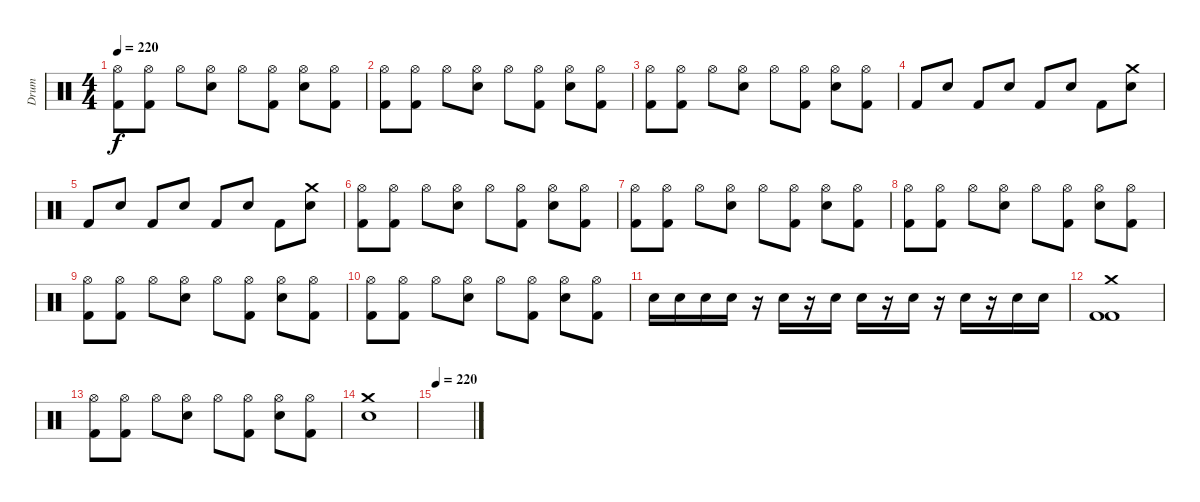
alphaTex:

\track ("Drum" "Drum") {instrument percussion}
\staff {score}
\articulation defaults
\ts (4 4)
\tempo 220
\clef neutral
\ks c
("Hi-Hat (open)" "Kick (hit) 2").8{dy f} ("Hi-Hat (open)" "Kick (hit) 2").8 "Hi-Hat (open)".8 ("Hi-Hat (open)" "Snare (hit) 2").8 "Hi-Hat (open)".8 ("Hi-Hat (open)" "Kick (hit) 2").8 ("Hi-Hat (open)" "Snare (hit) 2").8 ("Hi-Hat (open)" "Kick (hit) 2").8 |
("Hi-Hat (open)" "Kick (hit) 2").8 ("Hi-Hat (open)" "Kick (hit) 2").8 "Hi-Hat (open)".8 ("Hi-Hat (open)" "Snare (hit) 2").8 "Hi-Hat (open)".8 ("Hi-Hat (open)" "Kick (hit) 2").8 ("Hi-Hat (open)" "Snare (hit) 2").8 ("Hi-Hat (open)" "Kick (hit) 2").8 |
("Hi-Hat (open)" "Kick (hit) 2").8 ("Hi-Hat (open)" "Kick (hit) 2").8 "Hi-Hat (open)".8 ("Hi-Hat (open)" "Snare (hit) 2").8 "Hi-Hat (open)".8 ("Hi-Hat (open)" "Kick (hit) 2").8 ("Hi-Hat (open)" "Snare (hit) 2").8 ("Hi-Hat (open)" "Kick (hit) 2").8 |
"Kick (hit) 2".8 "Snare (hit) 2".8 "Kick (hit) 2".8 "Snare (hit) 2".8 "Kick (hit) 2".8 "Snare (hit) 2".8 "Kick (hit) 2".8 ("Crash medium (hit)" "Snare (hit) 2").8 |
"Kick (hit) 2".8 "Snare (hit) 2".8 "Kick (hit) 2".8 "Snare (hit) 2".8 "Kick (hit) 2".8 "Snare (hit) 2".8 "Kick (hit) 2".8 ("Crash medium (hit)" "Snare (hit) 2").8 |
("Hi-Hat (open)" "Kick (hit) 2").8 ("Hi-Hat (open)" "Kick (hit) 2").8 "Hi-Hat (open)".8 ("Hi-Hat (open)" "Snare (hit) 2").8 "Hi-Hat (open)".8 ("Hi-Hat (open)" "Kick (hit) 2").8 ("Hi-Hat (open)" "Snare (hit) 2").8 ("Hi-Hat (open)" "Kick (hit) 2").8 |
("Hi-Hat (open)" "Kick (hit) 2").8 ("Hi-Hat (open)" "Kick (hit) 2").8 "Hi-Hat (open)".8 ("Hi-Hat (open)" "Snare (hit) 2").8 "Hi-Hat (open)".8 ("Hi-Hat (open)" "Kick (hit) 2").8 ("Hi-Hat (open)" "Snare (hit) 2").8 ("Hi-Hat (open)" "Kick (hit) 2").8 |
("Hi-Hat (open)" "Kick (hit) 2").8 ("Hi-Hat (open)" "Kick (hit) 2").8 "Hi-Hat (open)".8 ("Hi-Hat (open)" "Snare (hit) 2").8 "Hi-Hat (open)".8 ("Hi-Hat (open)" "Kick (hit) 2").8 ("Hi-Hat (open)" "Snare (hit) 2").8 ("Hi-Hat (open)" "Kick (hit) 2").8 |
("Hi-Hat (open)" "Kick (hit) 2").8 ("Hi-Hat (open)" "Kick (hit) 2").8 "Hi-Hat (open)".8 ("Hi-Hat (open)" "Snare (hit) 2").8 "Hi-Hat (open)".8 ("Hi-Hat (open)" "Kick (hit) 2").8 ("Hi-Hat (open)" "Snare (hit) 2").8 ("Hi-Hat (open)" "Kick (hit) 2").8 |
("Hi-Hat (open)" "Kick (hit) 2").8 ("Hi-Hat (open)" "Kick (hit) 2").8 "Hi-Hat (open)".8 ("Hi-Hat (open)" "Snare (hit) 2").8 "Hi-Hat (open)".8 ("Hi-Hat (open)" "Kick (hit) 2").8 ("Hi-Hat (open)" "Snare (hit) 2").8 ("Hi-Hat (open)" "Kick (hit) 2").8 |
"Snare (hit) 2".16 "Snare (hit) 2".16 "Snare (hit) 2".16 "Snare (hit) 2".16 r.16 "Snare (hit) 2".16 r.16 "Snare (hit) 2".16 "Snare (hit) 2".16 r.16 "Snare (hit) 2".16 r.16 "Snare (hit) 2".16 r.16 "Snare (hit) 2".16 "Snare (hit) 2".16 |
("Crash medium (hit)" "Kick (hit) 2" "Kick (hit) 2").1 |
("Hi-Hat (open)" "Kick (hit) 2").8 ("Hi-Hat (open)" "Kick (hit) 2").8 "Hi-Hat (open)".8 ("Hi-Hat (open)" "Snare (hit) 2").8 "Hi-Hat (open)".8 ("Hi-Hat (open)" "Kick (hit) 2").8 ("Hi-Hat (open)" "Snare (hit) 2").8 ("Hi-Hat (open)" "Kick (hit) 2").8 |
("Crash medium (hit)" "Snare (hit) 2").1 |
\tempo 220
